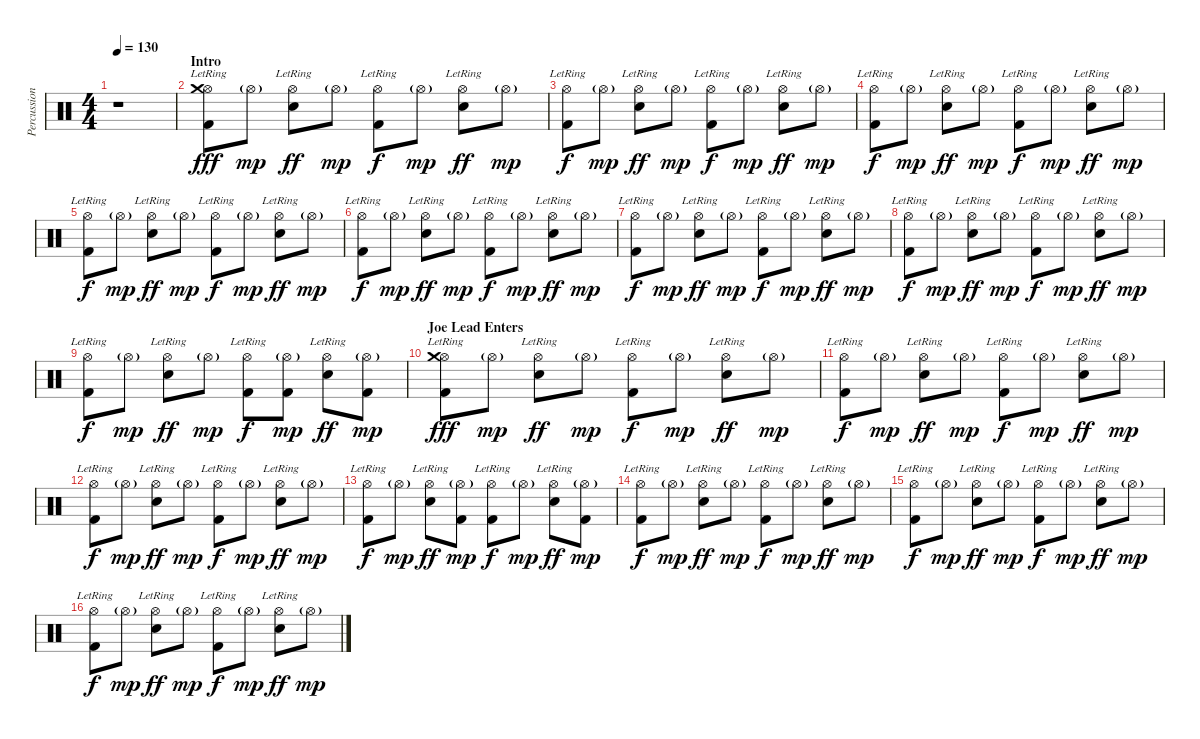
\track ("Percussion" "Percussion") {instrument percussion}
\staff {score}
\articulation defaults
\ts (4 4)
\tempo 130
\clef neutral
\ks c
r.1{dy fff} |
\section ("" "Intro")
("Hi-Hat (open)"{lr} "Crash medium (hit)"{lr} "Kick (hit) 2").8 "Hi-Hat (open)"{g}.8{dy mp} ("Hi-Hat (open)"{lr} "Snare (hit) 2").8{dy ff} "Hi-Hat (open)"{g}.8{dy mp} ("Hi-Hat (open)"{lr} "Kick (hit) 2").8{dy f} "Hi-Hat (open)"{g}.8{dy mp} ("Hi-Hat (open)"{lr} "Snare (hit) 2").8{dy ff} "Hi-Hat (open)"{g}.8{dy mp} |
("Hi-Hat (open)"{lr} "Kick (hit) 2").8{dy f} "Hi-Hat (open)"{g}.8{dy mp} ("Hi-Hat (open)"{lr} "Snare (hit) 2").8{dy ff} "Hi-Hat (open)"{g}.8{dy mp} ("Hi-Hat (open)"{lr} "Kick (hit) 2").8{dy f} "Hi-Hat (open)"{g}.8{dy mp} ("Hi-Hat (open)"{lr} "Snare (hit) 2").8{dy ff} "Hi-Hat (open)"{g}.8{dy mp} |
("Hi-Hat (open)"{lr} "Kick (hit) 2").8{dy f} "Hi-Hat (open)"{g}.8{dy mp} ("Hi-Hat (open)"{lr} "Snare (hit) 2").8{dy ff} "Hi-Hat (open)"{g}.8{dy mp} ("Hi-Hat (open)"{lr} "Kick (hit) 2").8{dy f} "Hi-Hat (open)"{g}.8{dy mp} ("Hi-Hat (open)"{lr} "Snare (hit) 2").8{dy ff} "Hi-Hat (open)"{g}.8{dy mp} |
("Hi-Hat (open)"{lr} "Kick (hit) 2").8{dy f} "Hi-Hat (open)"{g}.8{dy mp} ("Hi-Hat (open)"{lr} "Snare (hit) 2").8{dy ff} "Hi-Hat (open)"{g}.8{dy mp} ("Hi-Hat (open)"{lr} "Kick (hit) 2").8{dy f} "Hi-Hat (open)"{g}.8{dy mp} ("Hi-Hat (open)"{lr} "Snare (hit) 2").8{dy ff} "Hi-Hat (open)"{g}.8{dy mp} |
("Hi-Hat (open)"{lr} "Kick (hit) 2").8{dy f} "Hi-Hat (open)"{g}.8{dy mp} ("Hi-Hat (open)"{lr} "Snare (hit) 2").8{dy ff} "Hi-Hat (open)"{g}.8{dy mp} ("Hi-Hat (open)"{lr} "Kick (hit) 2").8{dy f} "Hi-Hat (open)"{g}.8{dy mp} ("Hi-Hat (open)"{lr} "Snare (hit) 2").8{dy ff} "Hi-Hat (open)"{g}.8{dy mp} |
("Hi-Hat (open)"{lr} "Kick (hit) 2").8{dy f} "Hi-Hat (open)"{g}.8{dy mp} ("Hi-Hat (open)"{lr} "Snare (hit) 2").8{dy ff} "Hi-Hat (open)"{g}.8{dy mp} ("Hi-Hat (open)"{lr} "Kick (hit) 2").8{dy f} "Hi-Hat (open)"{g}.8{dy mp} ("Hi-Hat (open)"{lr} "Snare (hit) 2").8{dy ff} "Hi-Hat (open)"{g}.8{dy mp} |
("Hi-Hat (open)"{lr} "Kick (hit) 2").8{dy f} "Hi-Hat (open)"{g}.8{dy mp} ("Hi-Hat (open)"{lr} "Snare (hit) 2").8{dy ff} "Hi-Hat (open)"{g}.8{dy mp} ("Hi-Hat (open)"{lr} "Kick (hit) 2").8{dy f} "Hi-Hat (open)"{g}.8{dy mp} ("Hi-Hat (open)"{lr} "Snare (hit) 2").8{dy ff} "Hi-Hat (open)"{g}.8{dy mp} |
("Hi-Hat (open)"{lr} "Kick (hit) 2").8{dy f} "Hi-Hat (open)"{g}.8{dy mp} ("Hi-Hat (open)"{lr} "Snare (hit) 2").8{dy ff} "Hi-Hat (open)"{g}.8{dy mp} ("Hi-Hat (open)"{lr} "Kick (hit) 2").8{dy f} ("Hi-Hat (open)"{g} "Kick (hit) 2").8{dy mp} ("Hi-Hat (open)"{lr} "Snare (hit) 2").8{dy ff} ("Hi-Hat (open)"{g} "Kick (hit) 2").8{dy mp} |
\section ("" "Joe Lead Enters")
("Hi-Hat (open)"{lr} "Crash medium (hit)"{lr} "Kick (hit) 2").8{dy fff} "Hi-Hat (open)"{g}.8{dy mp} ("Hi-Hat (open)"{lr} "Snare (hit) 2").8{dy ff} "Hi-Hat (open)"{g}.8{dy mp} ("Hi-Hat (open)"{lr} "Kick (hit) 2").8{dy f} "Hi-Hat (open)"{g}.8{dy mp} ("Hi-Hat (open)"{lr} "Snare (hit) 2").8{dy ff} "Hi-Hat (open)"{g}.8{dy mp} |
("Hi-Hat (open)"{lr} "Kick (hit) 2").8{dy f} "Hi-Hat (open)"{g}.8{dy mp} ("Hi-Hat (open)"{lr} "Snare (hit) 2").8{dy ff} "Hi-Hat (open)"{g}.8{dy mp} ("Hi-Hat (open)"{lr} "Kick (hit) 2").8{dy f} "Hi-Hat (open)"{g}.8{dy mp} ("Hi-Hat (open)"{lr} "Snare (hit) 2").8{dy ff} "Hi-Hat (open)"{g}.8{dy mp} |
("Hi-Hat (open)"{lr} "Kick (hit) 2").8{dy f} "Hi-Hat (open)"{g}.8{dy mp} ("Hi-Hat (open)"{lr} "Snare (hit) 2").8{dy ff} "Hi-Hat (open)"{g}.8{dy mp} ("Hi-Hat (open)"{lr} "Kick (hit) 2").8{dy f} "Hi-Hat (open)"{g}.8{dy mp} ("Hi-Hat (open)"{lr} "Snare (hit) 2").8{dy ff} "Hi-Hat (open)"{g}.8{dy mp} |
("Hi-Hat (open)"{lr} "Kick (hit) 2").8{dy f} "Hi-Hat (open)"{g}.8{dy mp} ("Hi-Hat (open)"{lr} "Snare (hit) 2").8{dy ff} ("Hi-Hat (open)"{g} "Kick (hit) 2").8{dy mp} ("Hi-Hat (open)"{lr} "Kick (hit) 2").8{dy f} "Hi-Hat (open)"{g}.8{dy mp} ("Hi-Hat (open)"{lr} "Snare (hit) 2").8{dy ff} ("Hi-Hat (open)"{g} "Kick (hit) 2").8{dy mp} |
("Hi-Hat (open)"{lr} "Kick (hit) 2").8{dy f} "Hi-Hat (open)"{g}.8{dy mp} ("Hi-Hat (open)"{lr} "Snare (hit) 2").8{dy ff} "Hi-Hat (open)"{g}.8{dy mp} ("Hi-Hat (open)"{lr} "Kick (hit) 2").8{dy f} "Hi-Hat (open)"{g}.8{dy mp} ("Hi-Hat (open)"{lr} "Snare (hit) 2").8{dy ff} "Hi-Hat (open)"{g}.8{dy mp} |
("Hi-Hat (open)"{lr} "Kick (hit) 2").8{dy f} "Hi-Hat (open)"{g}.8{dy mp} ("Hi-Hat (open)"{lr} "Snare (hit) 2").8{dy ff} "Hi-Hat (open)"{g}.8{dy mp} ("Hi-Hat (open)"{lr} "Kick (hit) 2").8{dy f} "Hi-Hat (open)"{g}.8{dy mp} ("Hi-Hat (open)"{lr} "Snare (hit) 2").8{dy ff} "Hi-Hat (open)"{g}.8{dy mp} |
("Hi-Hat (open)"{lr} "Kick (hit) 2").8{dy f} "Hi-Hat (open)"{g}.8{dy mp} ("Hi-Hat (open)"{lr} "Snare (hit) 2").8{dy ff} "Hi-Hat (open)"{g}.8{dy mp} ("Hi-Hat (open)"{lr} "Kick (hit) 2").8{dy f} "Hi-Hat (open)"{g}.8{dy mp} ("Hi-Hat (open)"{lr} "Snare (hit) 2").8{dy ff} "Hi-Hat (open)"{g}.8{dy mp}
